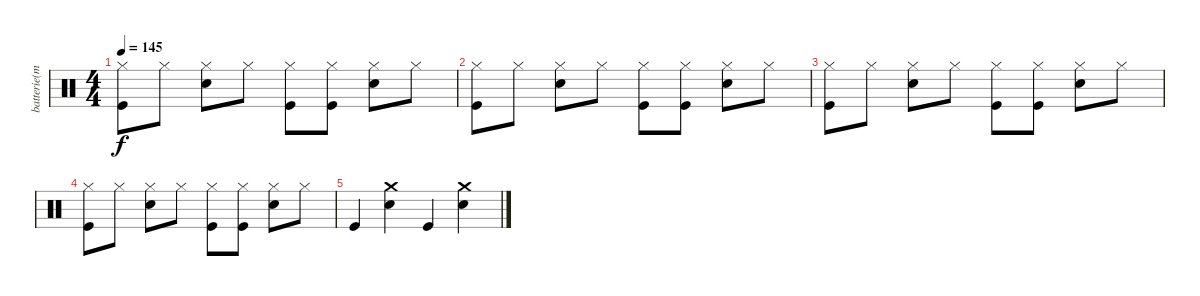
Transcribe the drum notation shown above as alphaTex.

\track ("batterie(micky)" "batterie(m") {instrument percussion}
\staff {score}
\articulation defaults
\ts (4 4)
\tempo 145
\clef neutral
\ks c
("Hi-Hat (closed)" "Kick (hit)").8{dy f} "Hi-Hat (closed)".8 ("Hi-Hat (closed)" "Snare (hit) 2").8 "Hi-Hat (closed)".8 ("Hi-Hat (closed)" "Kick (hit)").8 ("Hi-Hat (closed)" "Kick (hit)").8 ("Hi-Hat (closed)" "Snare (hit) 2").8 "Hi-Hat (closed)".8 |
("Hi-Hat (closed)" "Kick (hit)").8 "Hi-Hat (closed)".8 ("Hi-Hat (closed)" "Snare (hit) 2").8 "Hi-Hat (closed)".8 ("Hi-Hat (closed)" "Kick (hit)").8 ("Hi-Hat (closed)" "Kick (hit)").8 ("Hi-Hat (closed)" "Snare (hit) 2").8 "Hi-Hat (closed)".8 |
("Hi-Hat (closed)" "Kick (hit)").8 "Hi-Hat (closed)".8 ("Hi-Hat (closed)" "Snare (hit) 2").8 "Hi-Hat (closed)".8 ("Hi-Hat (closed)" "Kick (hit)").8 ("Hi-Hat (closed)" "Kick (hit)").8 ("Hi-Hat (closed)" "Snare (hit) 2").8 "Hi-Hat (closed)".8 |
("Hi-Hat (closed)" "Kick (hit)").8 "Hi-Hat (closed)".8 ("Hi-Hat (closed)" "Snare (hit) 2").8 "Hi-Hat (closed)".8 ("Hi-Hat (closed)" "Kick (hit)").8 ("Hi-Hat (closed)" "Kick (hit)").8 ("Hi-Hat (closed)" "Snare (hit) 2").8 "Hi-Hat (closed)".8 |
"Kick (hit)".4 ("Crash medium (hit)" "Snare (hit) 2").4 "Kick (hit)".4 ("Crash medium (hit)" "Snare (hit) 2").4
